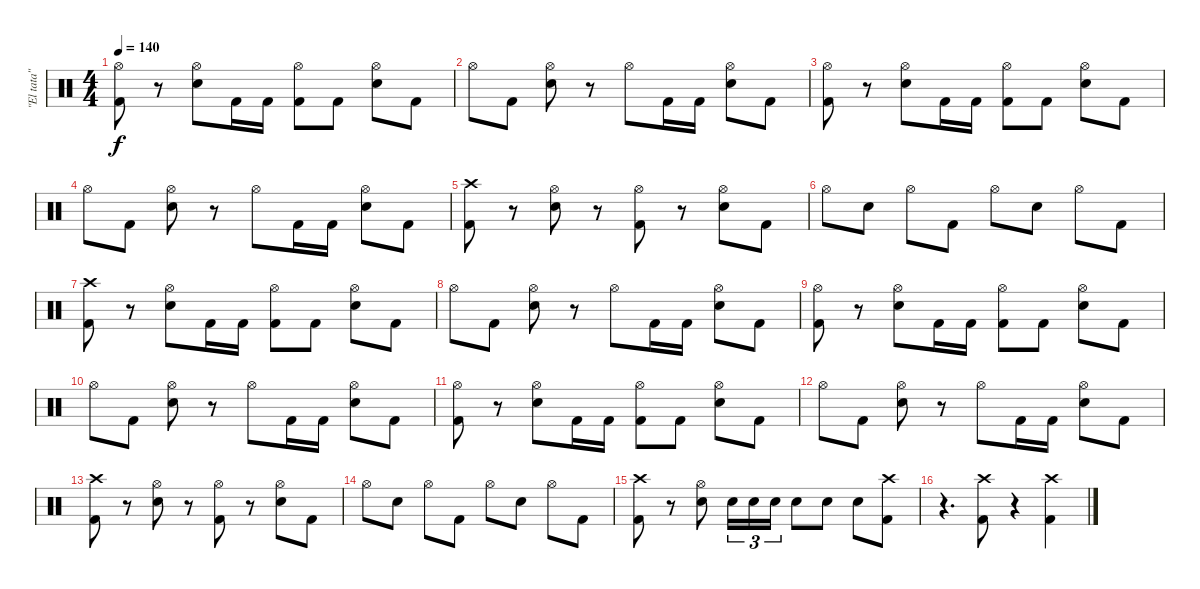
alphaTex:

\track ("\"El tata\"" "\"El tata\"") {instrument percussion}
\staff {score}
\articulation defaults
\ts (4 4)
\tempo 140
\clef neutral
\ks c
("Hi-Hat (open)" "Kick (hit) 2").8{dy f} r.8 ("Hi-Hat (open)" "Electric Snare (hit)").8 "Kick (hit) 2".16 "Kick (hit) 2".16 ("Hi-Hat (open)" "Kick (hit) 2").8 "Kick (hit) 2".8 ("Hi-Hat (open)" "Electric Snare (hit)").8 "Kick (hit) 2".8 |
"Hi-Hat (open)".8 "Kick (hit) 2".8 ("Hi-Hat (open)" "Electric Snare (hit)").8 r.8 "Hi-Hat (open)".8 "Kick (hit) 2".16 "Kick (hit) 2".16 ("Hi-Hat (open)" "Electric Snare (hit)").8 "Kick (hit) 2".8 |
("Hi-Hat (open)" "Kick (hit) 2").8 r.8 ("Hi-Hat (open)" "Electric Snare (hit)").8 "Kick (hit) 2".16 "Kick (hit) 2".16 ("Hi-Hat (open)" "Kick (hit) 2").8 "Kick (hit) 2".8 ("Hi-Hat (open)" "Electric Snare (hit)").8 "Kick (hit) 2".8 |
"Hi-Hat (open)".8 "Kick (hit) 2".8 ("Hi-Hat (open)" "Electric Snare (hit)").8 r.8 "Hi-Hat (open)".8 "Kick (hit) 2".16 "Kick (hit) 2".16 ("Hi-Hat (open)" "Electric Snare (hit)").8 "Kick (hit) 2".8 |
("Crash high (hit)" "Kick (hit) 2").8 r.8 ("Hi-Hat (open)" "Electric Snare (hit)").8 r.8 ("Hi-Hat (open)" "Kick (hit) 2").8 r.8 ("Hi-Hat (open)" "Electric Snare (hit)").8 "Kick (hit) 2".8 |
"Hi-Hat (open)".8 "Electric Snare (hit)".8 "Hi-Hat (open)".8 "Kick (hit) 2".8 "Hi-Hat (open)".8 "Electric Snare (hit)".8 "Hi-Hat (open)".8 "Kick (hit) 2".8 |
("Crash high (hit)" "Kick (hit) 2").8 r.8 ("Hi-Hat (open)" "Electric Snare (hit)").8 "Kick (hit) 2".16 "Kick (hit) 2".16 ("Hi-Hat (open)" "Kick (hit) 2").8 "Kick (hit) 2".8 ("Hi-Hat (open)" "Electric Snare (hit)").8 "Kick (hit) 2".8 |
"Hi-Hat (open)".8 "Kick (hit) 2".8 ("Hi-Hat (open)" "Electric Snare (hit)").8 r.8 "Hi-Hat (open)".8 "Kick (hit) 2".16 "Kick (hit) 2".16 ("Hi-Hat (open)" "Electric Snare (hit)").8 "Kick (hit) 2".8 |
("Hi-Hat (open)" "Kick (hit) 2").8 r.8 ("Hi-Hat (open)" "Electric Snare (hit)").8 "Kick (hit) 2".16 "Kick (hit) 2".16 ("Hi-Hat (open)" "Kick (hit) 2").8 "Kick (hit) 2".8 ("Hi-Hat (open)" "Electric Snare (hit)").8 "Kick (hit) 2".8 |
"Hi-Hat (open)".8 "Kick (hit) 2".8 ("Hi-Hat (open)" "Electric Snare (hit)").8 r.8 "Hi-Hat (open)".8 "Kick (hit) 2".16 "Kick (hit) 2".16 ("Hi-Hat (open)" "Electric Snare (hit)").8 "Kick (hit) 2".8 |
("Hi-Hat (open)" "Kick (hit) 2").8 r.8 ("Hi-Hat (open)" "Electric Snare (hit)").8 "Kick (hit) 2".16 "Kick (hit) 2".16 ("Hi-Hat (open)" "Kick (hit) 2").8 "Kick (hit) 2".8 ("Hi-Hat (open)" "Electric Snare (hit)").8 "Kick (hit) 2".8 |
"Hi-Hat (open)".8 "Kick (hit) 2".8 ("Hi-Hat (open)" "Electric Snare (hit)").8 r.8 "Hi-Hat (open)".8 "Kick (hit) 2".16 "Kick (hit) 2".16 ("Hi-Hat (open)" "Electric Snare (hit)").8 "Kick (hit) 2".8 |
("Crash high (hit)" "Kick (hit) 2").8 r.8 ("Hi-Hat (open)" "Electric Snare (hit)").8 r.8 ("Hi-Hat (open)" "Kick (hit) 2").8 r.8 ("Hi-Hat (open)" "Electric Snare (hit)").8 "Kick (hit) 2".8 |
"Hi-Hat (open)".8 "Electric Snare (hit)".8 "Hi-Hat (open)".8 "Kick (hit) 2".8 "Hi-Hat (open)".8 "Electric Snare (hit)".8 "Hi-Hat (open)".8 "Kick (hit) 2".8 |
("Crash high (hit)" "Kick (hit) 2").8 r.8 ("Hi-Hat (open)" "Electric Snare (hit)").8 "Electric Snare (hit)".16{tu (3 2)} "Electric Snare (hit)".16{tu (3 2)} "Electric Snare (hit)".16{tu (3 2)} "Electric Snare (hit)".8 "Electric Snare (hit)".8 "Electric Snare (hit)".8 ("Crash high (hit)" "Kick (hit) 2").8 |
r.4{d} ("Crash high (hit)" "Kick (hit) 2").8 r.4 ("Crash high (hit)" "Kick (hit) 2").4
